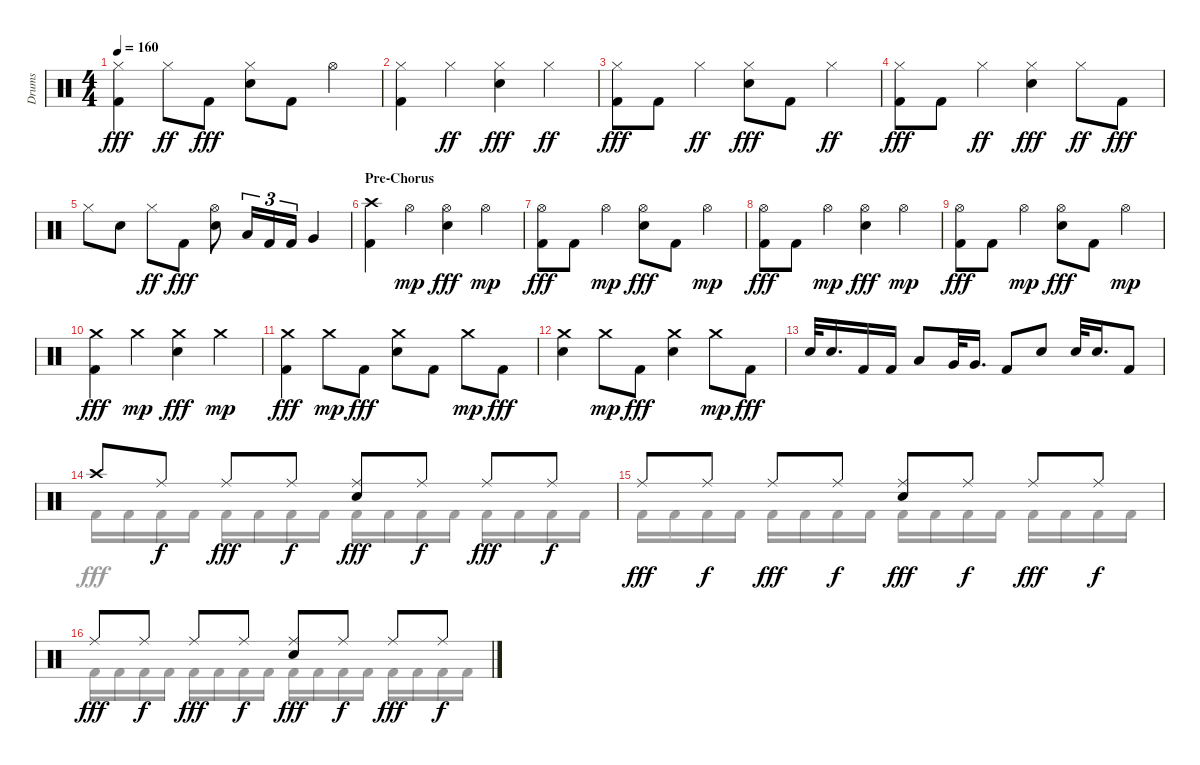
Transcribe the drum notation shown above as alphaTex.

\track ("Drums" "Drums") {instrument percussion}
\staff {score}
\articulation defaults
\voice
\ts (4 4)
\tempo 160
\clef neutral
\ks aminor
("Hi-Hat (closed)" "Kick (hit) 2").4{dy fff} "Hi-Hat (closed)".8{dy ff} "Kick (hit) 2".8{dy fff} ("Snare (hit) 2" "Hi-Hat (closed)").8 "Kick (hit) 2".8 "Hi-Hat (open)".4 |
("Kick (hit) 2" "Hi-Hat (closed)").4 "Hi-Hat (closed)".4{dy ff} ("Hi-Hat (closed)" "Snare (hit) 2").4{dy fff} "Hi-Hat (closed)".4{dy ff} |
("Kick (hit) 2" "Hi-Hat (closed)").8{dy fff} "Kick (hit) 2".8 "Hi-Hat (closed)".4{dy ff} ("Snare (hit) 2" "Hi-Hat (closed)").8{dy fff} "Kick (hit) 2".8 "Hi-Hat (closed)".4{dy ff} |
("Kick (hit) 2" "Hi-Hat (closed)").8{dy fff} "Kick (hit) 2".8 "Hi-Hat (closed)".4{dy ff} ("Snare (hit) 2" "Hi-Hat (closed)").4{dy fff} "Hi-Hat (closed)".8{dy ff} "Kick (hit) 2".8{dy fff} |
"Hi-Hat (closed)".8 "Snare (hit) 2".8 "Hi-Hat (closed)".8{dy ff} "Kick (hit) 2".8{dy fff} ("Snare (hit) 2" "Hi-Hat (open)").8 "Low Tom (hit)".16{tu (3 2)} "Kick (hit) 2".16{tu (3 2)} "Kick (hit) 2".16{tu (3 2)} "Very Low Tom (hit)".4 |
\section ("" "Pre-Chorus")
("Kick (hit) 2" "Crash high (hit)").4 "Hi-Hat (open)".4{dy mp} ("Snare (hit) 2" "Hi-Hat (open)").4{dy fff} "Hi-Hat (open)".4{dy mp} |
("Kick (hit) 2" "Hi-Hat (open)").8{dy fff} "Kick (hit) 2".8 "Hi-Hat (open)".4{dy mp} ("Hi-Hat (open)" "Snare (hit) 2").8{dy fff} "Kick (hit) 2".8 "Hi-Hat (open)".4{dy mp} |
("Kick (hit) 2" "Hi-Hat (open)").8{dy fff} "Kick (hit) 2".8 "Hi-Hat (open)".4{dy mp} ("Snare (hit) 2" "Hi-Hat (open)").4{dy fff} "Hi-Hat (open)".4{dy mp} |
("Hi-Hat (open)" "Kick (hit) 2").8{dy fff} "Kick (hit) 2".8 "Hi-Hat (open)".4{dy mp} ("Snare (hit) 2" "Hi-Hat (open)").8{dy fff} "Kick (hit) 2".8 "Hi-Hat (open)".4{dy mp} |
("Kick (hit) 2" "Crash medium (hit)").4{dy fff} "Crash medium (hit)".4{dy mp} ("Snare (hit) 2" "Crash medium (hit)").4{dy fff} "Crash medium (hit)".4{dy mp} |
("Kick (hit) 2" "Crash medium (hit)").4{dy fff} "Crash medium (hit)".8{dy mp} "Kick (hit) 2".8{dy fff} ("Snare (hit) 2" "Crash medium (hit)").8 "Kick (hit) 2".8 "Crash medium (hit)".8{dy mp} "Kick (hit) 2".8{dy fff} |
("Snare (hit) 2" "Crash medium (hit)").4 "Crash medium (hit)".8{dy mp} "Kick (hit) 2".8{dy fff} ("Snare (hit) 2" "Crash medium (hit)").4 "Crash medium (hit)".8{dy mp} "Kick (hit) 2".8{dy fff} |
"Snare (hit) 2".32 "Snare (hit) 2".16{d} "Kick (hit) 2".16 "Kick (hit) 2".16 "Low Tom (hit)".8 "Very Low Tom (hit)".32 "Very Low Tom (hit)".16{d} "Kick (hit) 2".8 "Snare (hit) 2".8 "Snare (hit) 2".32 "Snare (hit) 2".16{d} "Kick (hit) 2".8 |
"Crash high (hit)".8 "Ride (middle)".8{dy f} "Ride (middle)".8{dy fff} "Ride (middle)".8{dy f} ("Snare (hit) 2" "Ride (middle)").8{dy fff} "Ride (middle)".8{dy f} "Ride (middle)".8{dy fff} "Ride (middle)".8{dy f} |
"Ride (middle)".8{dy fff} "Ride (middle)".8{dy f} "Ride (middle)".8{dy fff} "Ride (middle)".8{dy f} ("Ride (middle)" "Snare (hit) 2").8{dy fff} "Ride (middle)".8{dy f} "Ride (middle)".8{dy fff} "Ride (middle)".8{dy f} |
"Ride (middle)".8{dy fff} "Ride (middle)".8{dy f} "Ride (middle)".8{dy fff} "Ride (middle)".8{dy f} ("Ride (middle)" "Snare (hit) 2").8{dy fff} "Ride (middle)".8{dy f} "Ride (middle)".8{dy fff} "Ride (middle)".8{dy f}
\voice
\clef neutral
\ottava regular
\simile none
\ks aminor
|
|
|
|
|
|
|
|
|
|
|
|
|
"Kick (hit) 2".16{dy fff} "Kick (hit) 2".16 "Kick (hit) 2".16 "Kick (hit) 2".16 "Kick (hit) 2".16 "Kick (hit) 2".16 "Kick (hit) 2".16 "Kick (hit) 2".16 "Kick (hit) 2".16 "Kick (hit) 2".16 "Kick (hit) 2".16 "Kick (hit) 2".16 "Kick (hit) 2".16 "Kick (hit) 2".16 "Kick (hit) 2".16 "Kick (hit) 2".16 |
"Kick (hit) 2".16 "Kick (hit) 2".16 "Kick (hit) 2".16 "Kick (hit) 2".16 "Kick (hit) 2".16 "Kick (hit) 2".16 "Kick (hit) 2".16 "Kick (hit) 2".16 "Kick (hit) 2".16 "Kick (hit) 2".16 "Kick (hit) 2".16 "Kick (hit) 2".16 "Kick (hit) 2".16 "Kick (hit) 2".16 "Kick (hit) 2".16 "Kick (hit) 2".16 |
"Kick (hit) 2".16 "Kick (hit) 2".16 "Kick (hit) 2".16 "Kick (hit) 2".16 "Kick (hit) 2".16 "Kick (hit) 2".16 "Kick (hit) 2".16 "Kick (hit) 2".16 "Kick (hit) 2".16 "Kick (hit) 2".16 "Kick (hit) 2".16 "Kick (hit) 2".16 "Kick (hit) 2".16 "Kick (hit) 2".16 "Kick (hit) 2".16 "Kick (hit) 2".16
